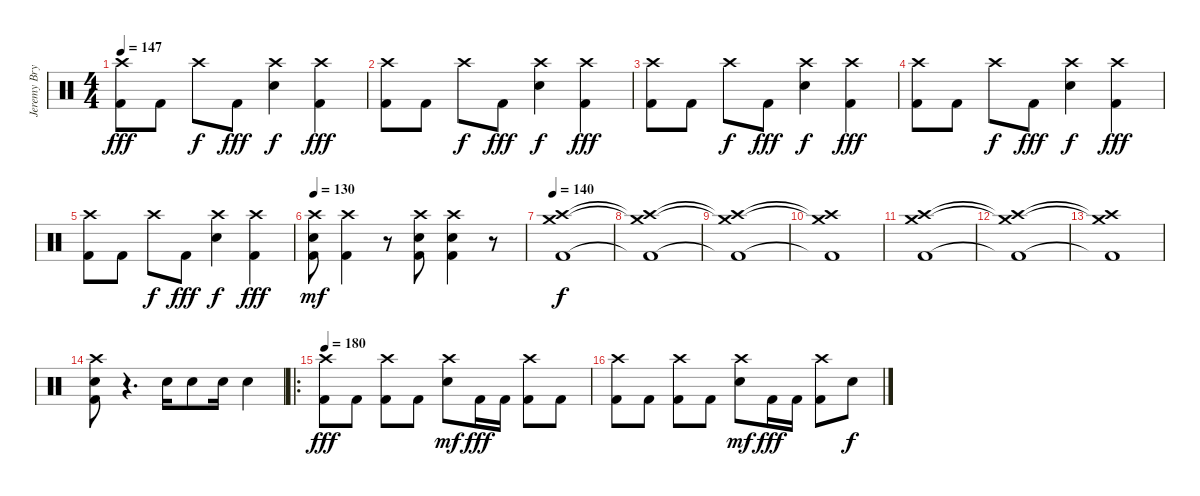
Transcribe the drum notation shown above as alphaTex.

\track ("Jeremy Bryan - Drums" "Jeremy Bry") {instrument percussion}
\staff {score}
\articulation defaults
\ts (4 4)
\tempo 147
\clef neutral
\ks c
("Crash high (hit)" "Kick (hit) 2").8{dy fff} "Kick (hit) 2".8 "Crash high (hit)".8{dy f} "Kick (hit) 2".8{dy fff} ("Crash high (hit)" "Electric Snare (hit)").4{dy f} ("Crash high (hit)" "Kick (hit) 2").4{dy fff} |
("Crash high (hit)" "Kick (hit) 2").8 "Kick (hit) 2".8 "Crash high (hit)".8{dy f} "Kick (hit) 2".8{dy fff} ("Crash high (hit)" "Electric Snare (hit)").4{dy f} ("Crash high (hit)" "Kick (hit) 2").4{dy fff} |
("Crash high (hit)" "Kick (hit) 2").8 "Kick (hit) 2".8 "Crash high (hit)".8{dy f} "Kick (hit) 2".8{dy fff} ("Crash high (hit)" "Electric Snare (hit)").4{dy f} ("Crash high (hit)" "Kick (hit) 2").4{dy fff} |
("Crash high (hit)" "Kick (hit) 2").8 "Kick (hit) 2".8 "Crash high (hit)".8{dy f} "Kick (hit) 2".8{dy fff} ("Crash high (hit)" "Electric Snare (hit)").4{dy f} ("Crash high (hit)" "Kick (hit) 2").4{dy fff} |
("Crash high (hit)" "Kick (hit) 2").8 "Kick (hit) 2".8 "Crash high (hit)".8{dy f} "Kick (hit) 2".8{dy fff} ("Crash high (hit)" "Electric Snare (hit)").4{dy f} ("Crash high (hit)" "Kick (hit) 2").4{dy fff} |
\tempo 130
("Crash high (hit)" "Electric Snare (hit)" "Kick (hit) 2").8{dy mf} ("Crash high (hit)" "Kick (hit) 2").4 r.8 ("Crash high (hit)" "Electric Snare (hit)" "Kick (hit) 2").8 ("Crash high (hit)" "Electric Snare (hit)" "Kick (hit) 2").4 r.8 |
\tempo 120
\tempo 140
("Crash high (hit)" "Crash medium (hit)" "Kick (hit) 2").1{dy f} |
("Crash high (hit)"{t} "Crash medium (hit)"{t} "Kick (hit) 2"{t}).1 |
("Crash high (hit)"{t} "Crash medium (hit)"{t} "Kick (hit) 2"{t}).1 |
("Crash high (hit)"{t} "Crash medium (hit)"{t} "Kick (hit) 2"{t}).1 |
("Crash high (hit)" "Crash medium (hit)" "Kick (hit) 2").1 |
("Crash high (hit)"{t} "Crash medium (hit)"{t} "Kick (hit) 2"{t}).1 |
("Crash high (hit)"{t} "Crash medium (hit)"{t} "Kick (hit) 2"{t}).1 |
("Crash high (hit)" "Electric Snare (hit)" "Kick (hit) 2").8 r.4{d} "Electric Snare (hit)".16 "Electric Snare (hit)".8 "Electric Snare (hit)".16 "Electric Snare (hit)".4 |
\ro
\tempo 180
("Crash high (hit)" "Kick (hit) 2").8{dy fff} "Kick (hit) 2".8 ("Crash high (hit)" "Kick (hit) 2").8 "Kick (hit) 2".8 ("Crash high (hit)" "Electric Snare (hit)").8{dy mf} "Kick (hit) 2".16{dy fff} "Kick (hit) 2".16 ("Crash high (hit)" "Kick (hit) 2").8 "Kick (hit) 2".8 |
("Crash high (hit)" "Kick (hit) 2").8 "Kick (hit) 2".8 ("Crash high (hit)" "Kick (hit) 2").8 "Kick (hit) 2".8 ("Crash high (hit)" "Electric Snare (hit)").8{dy mf} "Kick (hit) 2".16{dy fff} "Kick (hit) 2".16 ("Crash high (hit)" "Kick (hit) 2").8 "Electric Snare (hit)".8{dy f}
